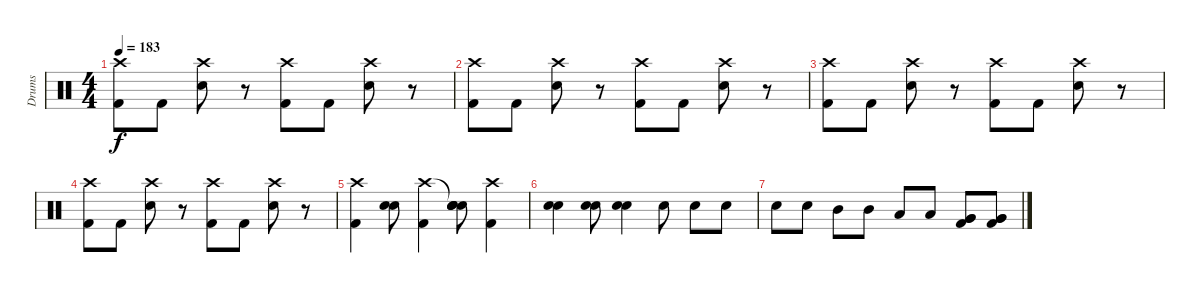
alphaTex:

\track ("Drums" "Drums") {instrument percussion}
\staff {score}
\articulation defaults
\ts (4 4)
\tempo 183
\clef neutral
\ks c
("Crash high (hit)" "Kick (hit) 2").8{dy f} "Kick (hit) 2".8 ("Crash high (hit)" "Electric Snare (hit)").8 r.8 ("Crash high (hit)" "Kick (hit) 2").8 "Kick (hit) 2".8 ("Crash high (hit)" "Electric Snare (hit)").8 r.8 |
("Crash high (hit)" "Kick (hit) 2").8 "Kick (hit) 2".8 ("Crash high (hit)" "Electric Snare (hit)").8 r.8 ("Crash high (hit)" "Kick (hit) 2").8 "Kick (hit) 2".8 ("Crash high (hit)" "Electric Snare (hit)").8 r.8 |
("Crash high (hit)" "Kick (hit) 2").8 "Kick (hit) 2".8 ("Crash high (hit)" "Electric Snare (hit)").8 r.8 ("Crash high (hit)" "Kick (hit) 2").8 "Kick (hit) 2".8 ("Crash high (hit)" "Electric Snare (hit)").8 r.8 |
("Crash high (hit)" "Kick (hit) 2").8 "Kick (hit) 2".8 ("Crash high (hit)" "Electric Snare (hit)").8 r.8 ("Crash high (hit)" "Kick (hit) 2").8 "Kick (hit) 2".8 ("Crash high (hit)" "Electric Snare (hit)").8 r.8 |
("Crash high (hit)" "Kick (hit) 2").4 ("Electric Snare (hit)" "Electric Snare (hit)").8 ("Crash high (hit)" "Kick (hit) 2").4 ("Snare (hit)"{t} "Electric Snare (hit)" "Electric Snare (hit)" "Snare (hit)").8 ("Crash high (hit)" "Kick (hit) 2").4 |
("Electric Snare (hit)" "Electric Snare (hit)").4 ("Electric Snare (hit)" "Electric Snare (hit)").8 ("Electric Snare (hit)" "Electric Snare (hit)").4 "Electric Snare (hit)".8 "Electric Snare (hit)".8 "Electric Snare (hit)".8 |
"Electric Snare (hit)".8 "Electric Snare (hit)".8 "Mid Tom (hit)".8 "Mid Tom (hit)".8 "Low Tom (hit)".8 "Low Tom (hit)".8 ("Very Low Tom (hit)" "Very Low Tom (hit)" "Kick (hit) 2").8 ("Very Low Tom (hit)" "Very Low Tom (hit)" "Kick (hit) 2").8
